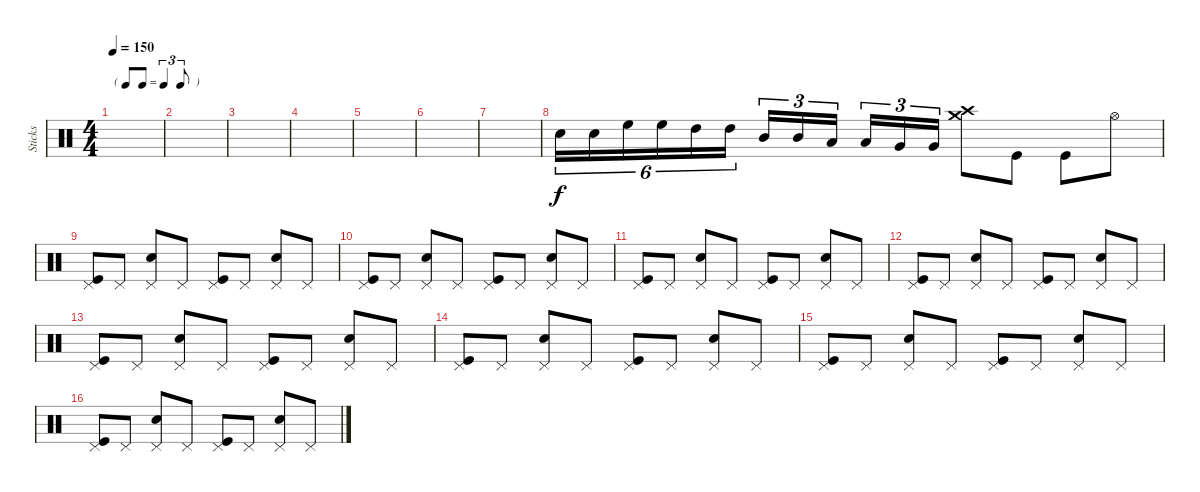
\track ("Sticks" "Sticks") {instrument percussion}
\staff {score}
\articulation defaults
\ts (4 4)
\tf triplet8th
\tempo 150
\clef neutral
\ks c
|
|
|
|
|
|
|
"Snare (hit) 2".16{tu (6 4)} "Snare (hit) 2".16{tu (6 4)} "High Floor Tom (hit)".16{tu (6 4)} "High Floor Tom (hit)".16{tu (6 4)} "High Tom (hit)".16{tu (6 4)} "High Tom (hit)".16{tu (6 4)} "Mid Tom (hit)".16{tu (3 2)} "Mid Tom (hit)".16{tu (3 2)} "Low Tom (hit)".16{tu (3 2)} "Low Tom (hit)".16{tu (3 2)} "Very Low Tom (hit)".16{tu (3 2)} "Very Low Tom (hit)".16{tu (3 2)} ("Crash high (hit)" "Crash medium (hit)").8 "Kick (hit)".8 "Kick (hit)".8 "Hi-Hat (open)".8 |
("Pedal Hi-Hat (hit)" "Kick (hit)").8 "Pedal Hi-Hat (hit)".8 ("Pedal Hi-Hat (hit)" "Snare (hit) 2").8 "Pedal Hi-Hat (hit)".8 ("Pedal Hi-Hat (hit)" "Kick (hit)").8 "Pedal Hi-Hat (hit)".8 ("Pedal Hi-Hat (hit)" "Snare (hit) 2").8 "Pedal Hi-Hat (hit)".8 |
("Pedal Hi-Hat (hit)" "Kick (hit)").8 "Pedal Hi-Hat (hit)".8 ("Pedal Hi-Hat (hit)" "Snare (hit) 2").8 "Pedal Hi-Hat (hit)".8 ("Pedal Hi-Hat (hit)" "Kick (hit)").8 "Pedal Hi-Hat (hit)".8 ("Pedal Hi-Hat (hit)" "Snare (hit) 2").8 "Pedal Hi-Hat (hit)".8 |
("Pedal Hi-Hat (hit)" "Kick (hit)").8 "Pedal Hi-Hat (hit)".8 ("Pedal Hi-Hat (hit)" "Snare (hit) 2").8 "Pedal Hi-Hat (hit)".8 ("Pedal Hi-Hat (hit)" "Kick (hit)").8 "Pedal Hi-Hat (hit)".8 ("Pedal Hi-Hat (hit)" "Snare (hit) 2").8 "Pedal Hi-Hat (hit)".8 |
("Pedal Hi-Hat (hit)" "Kick (hit)").8 "Pedal Hi-Hat (hit)".8 ("Pedal Hi-Hat (hit)" "Snare (hit) 2").8 "Pedal Hi-Hat (hit)".8 ("Pedal Hi-Hat (hit)" "Kick (hit)").8 "Pedal Hi-Hat (hit)".8 ("Pedal Hi-Hat (hit)" "Snare (hit) 2").8 "Pedal Hi-Hat (hit)".8 |
("Pedal Hi-Hat (hit)" "Kick (hit)").8 "Pedal Hi-Hat (hit)".8 ("Pedal Hi-Hat (hit)" "Snare (hit) 2").8 "Pedal Hi-Hat (hit)".8 ("Pedal Hi-Hat (hit)" "Kick (hit)").8 "Pedal Hi-Hat (hit)".8 ("Pedal Hi-Hat (hit)" "Snare (hit) 2").8 "Pedal Hi-Hat (hit)".8 |
("Pedal Hi-Hat (hit)" "Kick (hit)").8 "Pedal Hi-Hat (hit)".8 ("Pedal Hi-Hat (hit)" "Snare (hit) 2").8 "Pedal Hi-Hat (hit)".8 ("Pedal Hi-Hat (hit)" "Kick (hit)").8 "Pedal Hi-Hat (hit)".8 ("Pedal Hi-Hat (hit)" "Snare (hit) 2").8 "Pedal Hi-Hat (hit)".8 |
("Pedal Hi-Hat (hit)" "Kick (hit)").8 "Pedal Hi-Hat (hit)".8 ("Pedal Hi-Hat (hit)" "Snare (hit) 2").8 "Pedal Hi-Hat (hit)".8 ("Pedal Hi-Hat (hit)" "Kick (hit)").8 "Pedal Hi-Hat (hit)".8 ("Pedal Hi-Hat (hit)" "Snare (hit) 2").8 "Pedal Hi-Hat (hit)".8 |
("Pedal Hi-Hat (hit)" "Kick (hit)").8 "Pedal Hi-Hat (hit)".8 ("Pedal Hi-Hat (hit)" "Snare (hit) 2").8 "Pedal Hi-Hat (hit)".8 ("Pedal Hi-Hat (hit)" "Kick (hit)").8 "Pedal Hi-Hat (hit)".8 ("Pedal Hi-Hat (hit)" "Snare (hit) 2").8 "Pedal Hi-Hat (hit)".8
